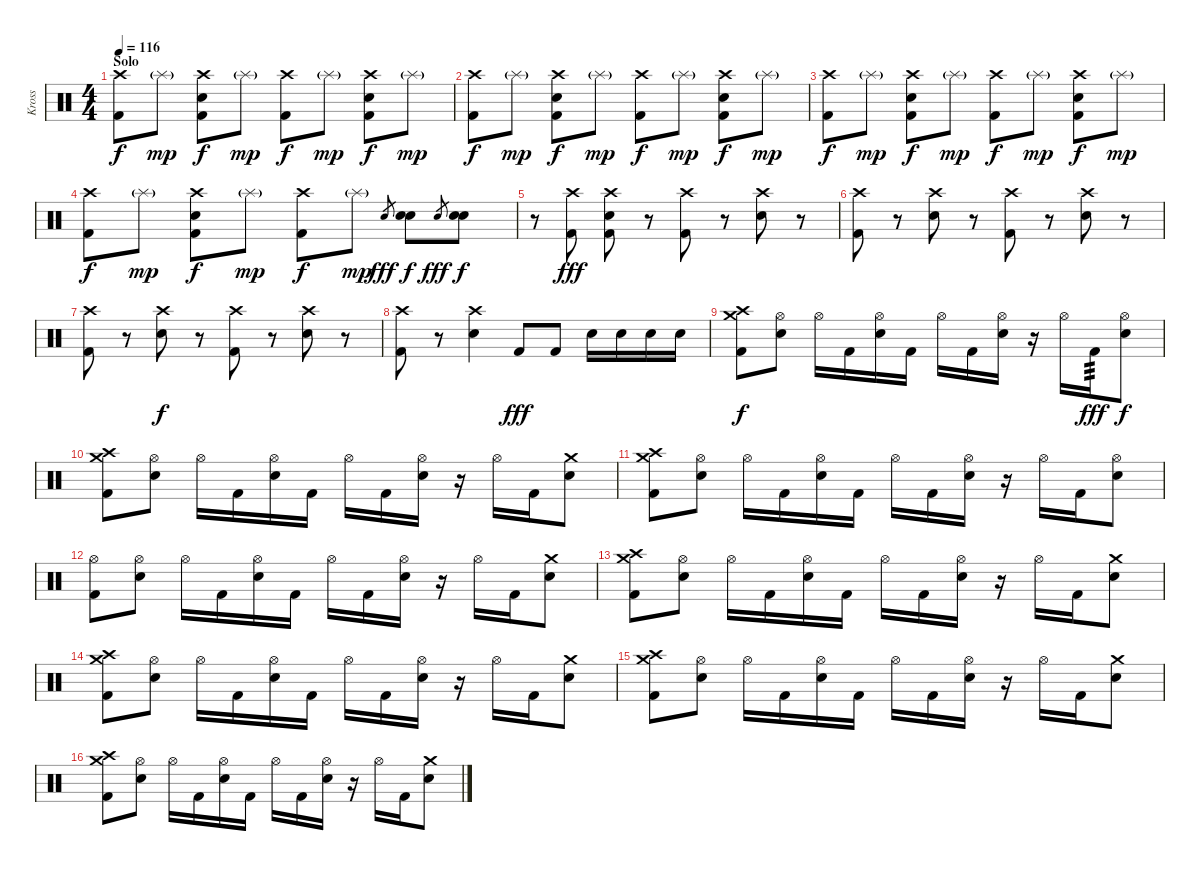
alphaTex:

\track ("Kross" "Kross") {instrument percussion}
\staff {score}
\articulation defaults
\ts (4 4)
\section ("" "Solo")
\tempo 116
\clef neutral
\ks c
("Crash high (hit)" "Kick (hit) 2").8{dy f} "Splash (hit)"{g}.8{dy mp} ("Crash high (hit)" "Electric Snare (hit)" "Kick (hit) 2").8{dy f} "Splash (hit)"{g}.8{dy mp} ("Crash high (hit)" "Kick (hit) 2").8{dy f} "Splash (hit)"{g}.8{dy mp} ("Crash high (hit)" "Electric Snare (hit)" "Kick (hit) 2").8{dy f} "Splash (hit)"{g}.8{dy mp} |
("Crash high (hit)" "Kick (hit) 2").8{dy f} "Splash (hit)"{g}.8{dy mp} ("Crash high (hit)" "Electric Snare (hit)" "Kick (hit) 2").8{dy f} "Splash (hit)"{g}.8{dy mp} ("Crash high (hit)" "Kick (hit) 2").8{dy f} "Splash (hit)"{g}.8{dy mp} ("Crash high (hit)" "Electric Snare (hit)" "Kick (hit) 2").8{dy f} "Splash (hit)"{g}.8{dy mp} |
("Crash high (hit)" "Kick (hit) 2").8{dy f} "Splash (hit)"{g}.8{dy mp} ("Crash high (hit)" "Electric Snare (hit)" "Kick (hit) 2").8{dy f} "Splash (hit)"{g}.8{dy mp} ("Crash high (hit)" "Kick (hit) 2").8{dy f} "Splash (hit)"{g}.8{dy mp} ("Crash high (hit)" "Electric Snare (hit)" "Kick (hit) 2").8{dy f} "Splash (hit)"{g}.8{dy mp} |
("Crash high (hit)" "Kick (hit) 2").8{dy f} "Splash (hit)"{g}.8{dy mp} ("Crash high (hit)" "Electric Snare (hit)" "Kick (hit) 2").8{dy f} "Splash (hit)"{g}.8{dy mp} ("Crash high (hit)" "Kick (hit) 2").8{dy f} "Splash (hit)"{g}.8{dy mp} "Electric Snare (hit)".8{gr dy fff} ("Electric Snare (hit)" "Electric Snare (hit)").8{dy f} "Electric Snare (hit)".8{gr dy fff} ("Electric Snare (hit)" "Electric Snare (hit)").8{dy f} |
r.8 ("Crash high (hit)" "Kick (hit) 2").8{dy fff} ("Crash high (hit)" "Electric Snare (hit)" "Kick (hit) 2").8 r.8 ("Crash high (hit)" "Kick (hit) 2").8 r.8 ("Crash high (hit)" "Electric Snare (hit)").8 r.8 |
("Crash high (hit)" "Kick (hit) 2").8 r.8 ("Crash high (hit)" "Electric Snare (hit)").8 r.8 ("Crash high (hit)" "Kick (hit) 2").8 r.8 ("Crash high (hit)" "Electric Snare (hit)").8 r.8 |
("Crash high (hit)" "Kick (hit) 2").8 r.8 ("Crash high (hit)" "Electric Snare (hit)").8{dy f} r.8 ("Crash high (hit)" "Kick (hit) 2").8 r.8 ("Crash high (hit)" "Electric Snare (hit)").8 r.8 |
("Crash high (hit)" "Kick (hit) 2").8 r.8 ("Crash high (hit)" "Electric Snare (hit)").4 "Kick (hit) 2".8{dy fff} "Kick (hit) 2".8 "Electric Snare (hit)".16 "Electric Snare (hit)".16 "Electric Snare (hit)".16 "Electric Snare (hit)".16 |
("Crash medium (hit)" "Crash high (hit)" "Kick (hit) 2").8{dy f} ("Hi-Hat (open)" "Electric Snare (hit)").8 "Hi-Hat (open)".16 "Kick (hit) 2".16 ("Hi-Hat (open)" "Electric Snare (hit)").16 "Kick (hit) 2".16 "Hi-Hat (open)".16 "Kick (hit) 2".16 ("Hi-Hat (open)" "Electric Snare (hit)").16 r.16 "Hi-Hat (open)".16 "Kick (hit) 2".16{tp 3 dy fff} ("Hi-Hat (open)" "Electric Snare (hit)").8{dy f} |
("Crash medium (hit)" "Crash high (hit)" "Kick (hit) 2").8 ("Hi-Hat (open)" "Electric Snare (hit)").8 "Hi-Hat (open)".16 "Kick (hit) 2".16 ("Hi-Hat (open)" "Electric Snare (hit)").16 "Kick (hit) 2".16 "Hi-Hat (open)".16 "Kick (hit) 2".16 ("Hi-Hat (open)" "Electric Snare (hit)").16 r.16 "Hi-Hat (open)".16 "Kick (hit) 2".16 ("Crash medium (hit)" "Electric Snare (hit)").8 |
("Crash medium (hit)" "Crash high (hit)" "Kick (hit) 2").8 ("Hi-Hat (open)" "Electric Snare (hit)").8 "Hi-Hat (open)".16 "Kick (hit) 2".16 ("Hi-Hat (open)" "Electric Snare (hit)").16 "Kick (hit) 2".16 "Hi-Hat (open)".16 "Kick (hit) 2".16 ("Hi-Hat (open)" "Electric Snare (hit)").16 r.16 "Hi-Hat (open)".16 "Kick (hit) 2".16 ("Hi-Hat (open)" "Electric Snare (hit)").8 |
("Hi-Hat (open)" "Kick (hit) 2").8 ("Hi-Hat (open)" "Electric Snare (hit)").8 "Hi-Hat (open)".16 "Kick (hit) 2".16 ("Hi-Hat (open)" "Electric Snare (hit)").16 "Kick (hit) 2".16 "Hi-Hat (open)".16 "Kick (hit) 2".16 ("Hi-Hat (open)" "Electric Snare (hit)").16 r.16 "Hi-Hat (open)".16 "Kick (hit) 2".16 ("Crash medium (hit)" "Electric Snare (hit)").8 |
("Crash medium (hit)" "Crash high (hit)" "Kick (hit) 2").8 ("Hi-Hat (open)" "Electric Snare (hit)").8 "Hi-Hat (open)".16 "Kick (hit) 2".16 ("Hi-Hat (open)" "Electric Snare (hit)").16 "Kick (hit) 2".16 "Hi-Hat (open)".16 "Kick (hit) 2".16 ("Hi-Hat (open)" "Electric Snare (hit)").16 r.16 "Hi-Hat (open)".16 "Kick (hit) 2".16 ("Crash medium (hit)" "Electric Snare (hit)").8 |
("Crash medium (hit)" "Crash high (hit)" "Kick (hit) 2").8 ("Hi-Hat (open)" "Electric Snare (hit)").8 "Hi-Hat (open)".16 "Kick (hit) 2".16 ("Hi-Hat (open)" "Electric Snare (hit)").16 "Kick (hit) 2".16 "Hi-Hat (open)".16 "Kick (hit) 2".16 ("Hi-Hat (open)" "Electric Snare (hit)").16 r.16 "Hi-Hat (open)".16 "Kick (hit) 2".16 ("Crash medium (hit)" "Electric Snare (hit)").8 |
("Crash medium (hit)" "Crash high (hit)" "Kick (hit) 2").8 ("Hi-Hat (open)" "Electric Snare (hit)").8 "Hi-Hat (open)".16 "Kick (hit) 2".16 ("Hi-Hat (open)" "Electric Snare (hit)").16 "Kick (hit) 2".16 "Hi-Hat (open)".16 "Kick (hit) 2".16 ("Hi-Hat (open)" "Electric Snare (hit)").16 r.16 "Hi-Hat (open)".16 "Kick (hit) 2".16 ("Crash medium (hit)" "Electric Snare (hit)").8 |
("Crash medium (hit)" "Crash high (hit)" "Kick (hit) 2").8 ("Hi-Hat (open)" "Electric Snare (hit)").8 "Hi-Hat (open)".16 "Kick (hit) 2".16 ("Hi-Hat (open)" "Electric Snare (hit)").16 "Kick (hit) 2".16 "Hi-Hat (open)".16 "Kick (hit) 2".16 ("Hi-Hat (open)" "Electric Snare (hit)").16 r.16 "Hi-Hat (open)".16 "Kick (hit) 2".16 ("Crash medium (hit)" "Electric Snare (hit)").8
